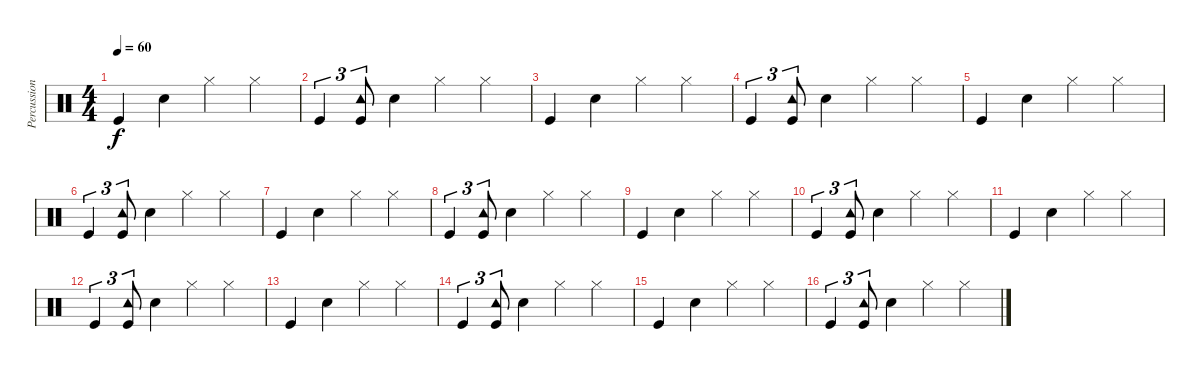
\track ("Percussion" "Percussion") {instrument percussion}
\staff {score}
\articulation defaults
\ts (4 4)
\tempo 60
\clef neutral
\ks c "Kick (hit)".4{dy f} "Electric Snare (hit)".4 "Hi-Hat (closed)".4 "Hi-Hat (closed)".4
|
"Kick (hit)".4{tu (3 2)} ("Tambourine (hit)" "Kick (hit)").8{tu (3 2)} "Electric Snare (hit)".4 "Hi-Hat (closed)".4 "Hi-Hat (closed)".4 |
"Kick (hit)".4 "Electric Snare (hit)".4 "Hi-Hat (closed)".4 "Hi-Hat (closed)".4 |
"Kick (hit)".4{tu (3 2)} ("Tambourine (hit)" "Kick (hit)").8{tu (3 2)} "Electric Snare (hit)".4 "Hi-Hat (closed)".4 "Hi-Hat (closed)".4 |
"Kick (hit)".4 "Electric Snare (hit)".4 "Hi-Hat (closed)".4 "Hi-Hat (closed)".4 |
"Kick (hit)".4{tu (3 2)} ("Tambourine (hit)" "Kick (hit)").8{tu (3 2)} "Electric Snare (hit)".4 "Hi-Hat (closed)".4 "Hi-Hat (closed)".4 |
"Kick (hit)".4 "Electric Snare (hit)".4 "Hi-Hat (closed)".4 "Hi-Hat (closed)".4 |
"Kick (hit)".4{tu (3 2)} ("Tambourine (hit)" "Kick (hit)").8{tu (3 2)} "Electric Snare (hit)".4 "Hi-Hat (closed)".4 "Hi-Hat (closed)".4 |
"Kick (hit)".4 "Electric Snare (hit)".4 "Hi-Hat (closed)".4 "Hi-Hat (closed)".4 |
"Kick (hit)".4{tu (3 2)} ("Tambourine (hit)" "Kick (hit)").8{tu (3 2)} "Electric Snare (hit)".4 "Hi-Hat (closed)".4 "Hi-Hat (closed)".4 |
"Kick (hit)".4 "Electric Snare (hit)".4 "Hi-Hat (closed)".4 "Hi-Hat (closed)".4 |
"Kick (hit)".4{tu (3 2)} ("Tambourine (hit)" "Kick (hit)").8{tu (3 2)} "Electric Snare (hit)".4 "Hi-Hat (closed)".4 "Hi-Hat (closed)".4 |
"Kick (hit)".4 "Electric Snare (hit)".4 "Hi-Hat (closed)".4 "Hi-Hat (closed)".4 |
"Kick (hit)".4{tu (3 2)} ("Tambourine (hit)" "Kick (hit)").8{tu (3 2)} "Electric Snare (hit)".4 "Hi-Hat (closed)".4 "Hi-Hat (closed)".4 |
"Kick (hit)".4 "Electric Snare (hit)".4 "Hi-Hat (closed)".4 "Hi-Hat (closed)".4 |
"Kick (hit)".4{tu (3 2)} ("Tambourine (hit)" "Kick (hit)").8{tu (3 2)} "Electric Snare (hit)".4 "Hi-Hat (closed)".4 "Hi-Hat (closed)".4
